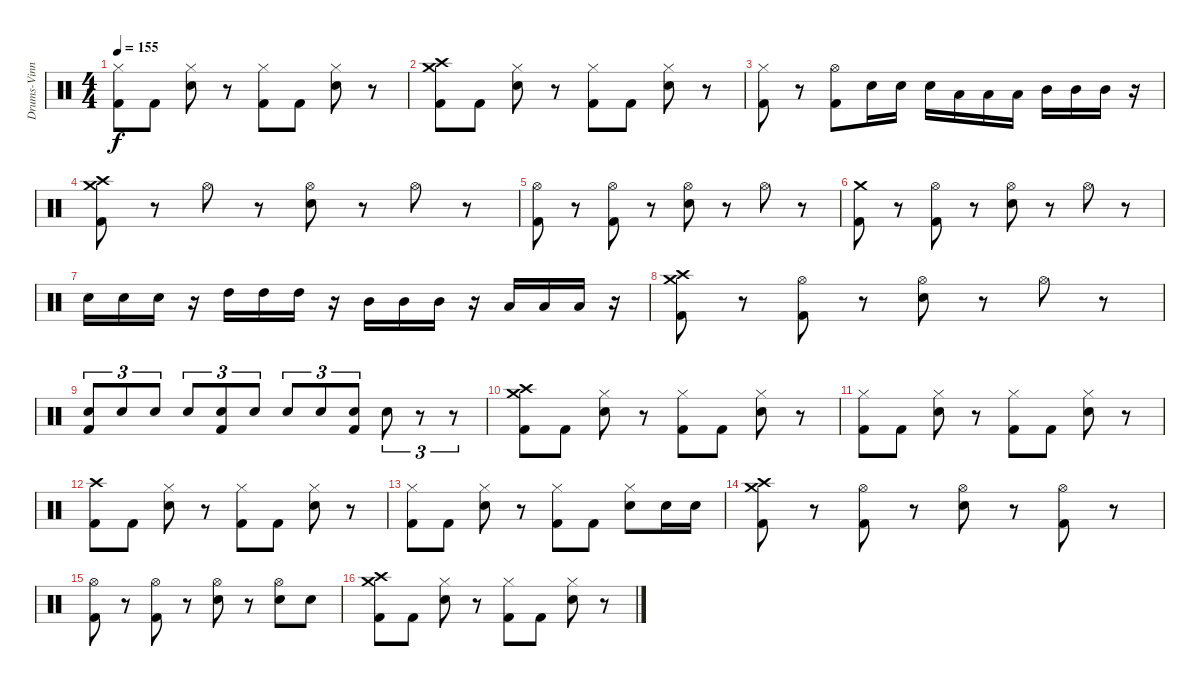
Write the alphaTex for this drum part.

\track ("Drums-Vinny Appice" "Drums-Vinn") {instrument percussion}
\staff {score}
\articulation defaults
\ts (4 4)
\tempo 155
\clef neutral
\ks c
("Hi-Hat (closed)" "Kick (hit) 2").8{dy f} "Kick (hit) 2".8 ("Hi-Hat (closed)" "Electric Snare (hit)").8 r.8 ("Hi-Hat (closed)" "Kick (hit) 2").8 "Kick (hit) 2".8 ("Hi-Hat (closed)" "Electric Snare (hit)").8 r.8 |
("Crash medium (hit)" "Crash high (hit)" "Kick (hit) 2").8 "Kick (hit) 2".8 ("Hi-Hat (closed)" "Electric Snare (hit)").8 r.8 ("Hi-Hat (closed)" "Kick (hit) 2").8 "Kick (hit) 2".8 ("Hi-Hat (closed)" "Electric Snare (hit)").8 r.8 |
("Hi-Hat (closed)" "Kick (hit) 2").8 r.8 ("Hi-Hat (open)" "Kick (hit) 2").8 "Electric Snare (hit)".16 "Electric Snare (hit)".16 "Electric Snare (hit)".16 "Low Floor Tom (hit)".16 "Low Floor Tom (hit)".16 "Low Floor Tom (hit)".16 "Mid Tom (hit)".16 "Mid Tom (hit)".16 "Mid Tom (hit)".16 r.16 |
("Crash medium (hit)" "Crash high (hit)" "Kick (hit) 2").8 r.8 "Hi-Hat (open)".8 r.8 ("Hi-Hat (open)" "Electric Snare (hit)").8 r.8 "Hi-Hat (open)".8 r.8 |
("Hi-Hat (open)" "Kick (hit) 2").8 r.8 ("Hi-Hat (open)" "Kick (hit) 2").8 r.8 ("Hi-Hat (open)" "Electric Snare (hit)").8 r.8 "Hi-Hat (open)".8 r.8 |
("Crash medium (hit)" "Kick (hit) 2").8 r.8 ("Hi-Hat (open)" "Kick (hit) 2").8 r.8 ("Hi-Hat (open)" "Electric Snare (hit)").8 r.8 "Hi-Hat (open)".8 r.8 |
"Electric Snare (hit)".16 "Electric Snare (hit)".16 "Electric Snare (hit)".16 r.16 "High Tom (hit)".16 "High Tom (hit)".16 "High Tom (hit)".16 r.16 "Mid Tom (hit)".16 "Mid Tom (hit)".16 "Mid Tom (hit)".16 r.16 "Low Floor Tom (hit)".16 "Low Floor Tom (hit)".16 "Low Floor Tom (hit)".16 r.16 |
("Crash medium (hit)" "Crash high (hit)" "Kick (hit) 2").8 r.8 ("Hi-Hat (open)" "Kick (hit) 2").8 r.8 ("Hi-Hat (open)" "Electric Snare (hit)").8 r.8 "Hi-Hat (open)".8 r.8 |
("Electric Snare (hit)" "Kick (hit) 2").8{tu (3 2)} "Electric Snare (hit)".8{tu (3 2)} "Electric Snare (hit)".8{tu (3 2)} "Electric Snare (hit)".8{tu (3 2)} ("Electric Snare (hit)" "Kick (hit) 2").8{tu (3 2)} "Electric Snare (hit)".8{tu (3 2)} "Electric Snare (hit)".8{tu (3 2)} "Electric Snare (hit)".8{tu (3 2)} ("Electric Snare (hit)" "Kick (hit) 2").8{tu (3 2)} "Electric Snare (hit)".8{tu (3 2)} r.8{tu (3 2)} r.8{tu (3 2)} |
("Crash medium (hit)" "Crash high (hit)" "Kick (hit) 2").8 "Kick (hit) 2".8 ("Hi-Hat (closed)" "Electric Snare (hit)").8 r.8 ("Hi-Hat (closed)" "Kick (hit) 2").8 "Kick (hit) 2".8 ("Hi-Hat (closed)" "Electric Snare (hit)").8 r.8 |
("Hi-Hat (closed)" "Kick (hit) 2").8 "Kick (hit) 2".8 ("Hi-Hat (closed)" "Electric Snare (hit)").8 r.8 ("Hi-Hat (closed)" "Kick (hit) 2").8 "Kick (hit) 2".8 ("Hi-Hat (closed)" "Electric Snare (hit)").8 r.8 |
("Crash high (hit)" "Kick (hit) 2").8 "Kick (hit) 2".8 ("Hi-Hat (closed)" "Electric Snare (hit)").8 r.8 ("Hi-Hat (closed)" "Kick (hit) 2").8 "Kick (hit) 2".8 ("Hi-Hat (closed)" "Electric Snare (hit)").8 r.8 |
("Hi-Hat (closed)" "Kick (hit) 2").8 "Kick (hit) 2".8 ("Hi-Hat (closed)" "Electric Snare (hit)").8 r.8 ("Hi-Hat (closed)" "Kick (hit) 2").8 "Kick (hit) 2".8 ("Hi-Hat (closed)" "Electric Snare (hit)").8 "Electric Snare (hit)".16 "Electric Snare (hit)".16 |
("Crash medium (hit)" "Crash high (hit)" "Kick (hit) 2").8 r.8 ("Hi-Hat (open)" "Kick (hit) 2").8 r.8 ("Hi-Hat (open)" "Electric Snare (hit)").8 r.8 ("Hi-Hat (open)" "Kick (hit) 2").8 r.8 |
("Hi-Hat (open)" "Kick (hit) 2").8 r.8 ("Hi-Hat (open)" "Kick (hit) 2").8 r.8 ("Hi-Hat (open)" "Electric Snare (hit)").8 r.8 ("Hi-Hat (open)" "Electric Snare (hit)").8 "Electric Snare (hit)".8 |
("Crash medium (hit)" "Crash high (hit)" "Kick (hit) 2").8 "Kick (hit) 2".8 ("Hi-Hat (closed)" "Electric Snare (hit)").8 r.8 ("Hi-Hat (closed)" "Kick (hit) 2").8 "Kick (hit) 2".8 ("Hi-Hat (closed)" "Electric Snare (hit)").8 r.8
